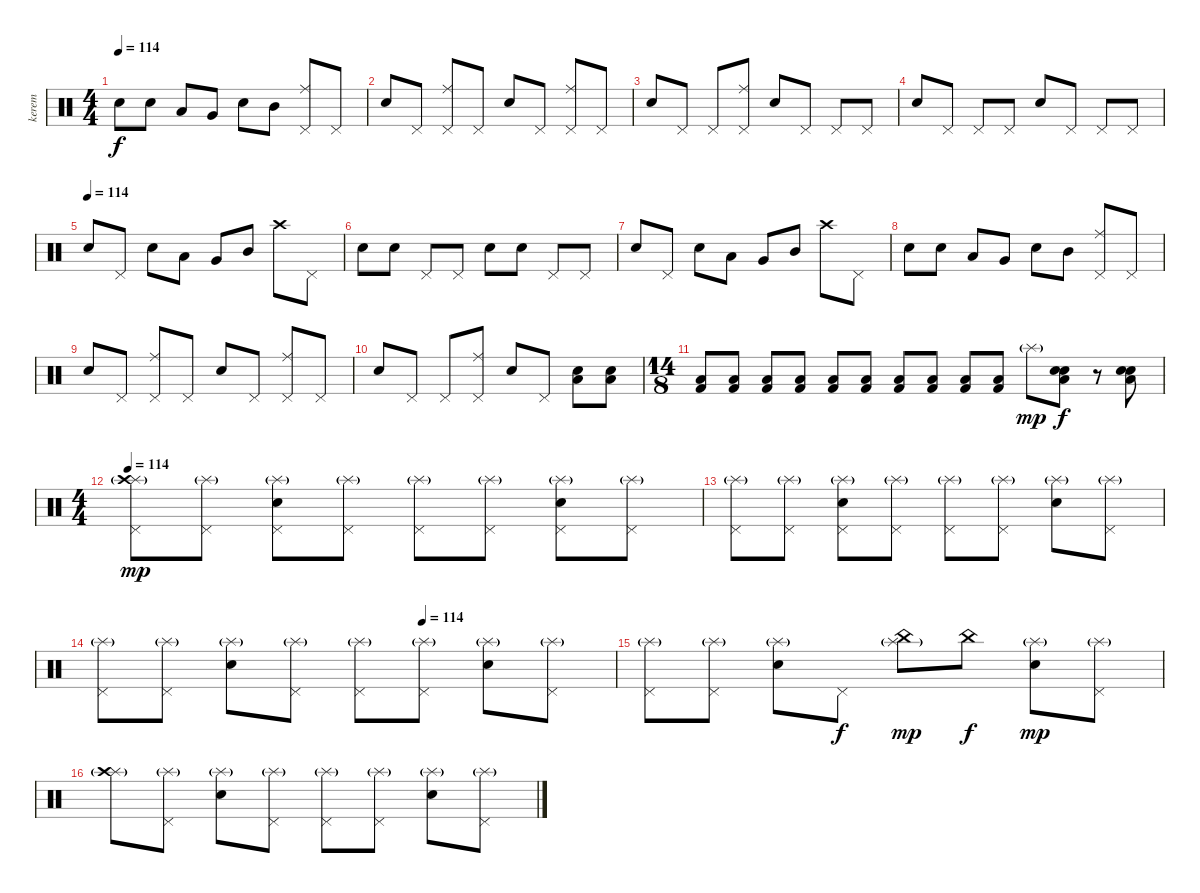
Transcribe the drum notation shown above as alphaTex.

\track ("kerem" "kerem") {instrument percussion}
\staff {score}
\articulation defaults
\ts (4 4)
\tempo 114
\clef neutral
\ks c "Snare (hit) 2".8{dy f} "Snare (hit) 2".8 "Low Floor Tom (hit)".8 "Very Low Tom (hit)".8 "Snare (hit) 2".8 "Mid Tom (hit)".8
("Ride (middle)" "Pedal Hi-Hat (hit)").8 "Pedal Hi-Hat (hit)".8 |
"Snare (hit) 2".8 "Pedal Hi-Hat (hit)".8 ("Pedal Hi-Hat (hit)" "Ride (middle)").8 "Pedal Hi-Hat (hit)".8 "Snare (hit) 2".8 "Pedal Hi-Hat (hit)".8 ("Ride (middle)" "Pedal Hi-Hat (hit)").8 "Pedal Hi-Hat (hit)".8 |
"Snare (hit) 2".8 "Pedal Hi-Hat (hit)".8 "Pedal Hi-Hat (hit)".8 ("Ride (middle)" "Pedal Hi-Hat (hit)").8 "Snare (hit) 2".8 "Pedal Hi-Hat (hit)".8 "Pedal Hi-Hat (hit)".8 "Pedal Hi-Hat (hit)".8 |
"Snare (hit) 2".8 "Pedal Hi-Hat (hit)".8 "Pedal Hi-Hat (hit)".8 "Pedal Hi-Hat (hit)".8 "Snare (hit) 2".8 "Pedal Hi-Hat (hit)".8 "Pedal Hi-Hat (hit)".8 "Pedal Hi-Hat (hit)".8 |
\tempo (114)
"Snare (hit) 2".8 "Pedal Hi-Hat (hit)".8 "Snare (hit) 2".8 "Low Floor Tom (hit)".8 "Very Low Tom (hit)".8 "Mid Tom (hit)".8 "Crash high (hit)".8 "Pedal Hi-Hat (hit)".8 |
"Snare (hit) 2".8 "Snare (hit) 2".8 "Pedal Hi-Hat (hit)".8 "Pedal Hi-Hat (hit)".8 "Snare (hit) 2".8 "Snare (hit) 2".8 "Pedal Hi-Hat (hit)".8 "Pedal Hi-Hat (hit)".8 |
"Snare (hit) 2".8 "Pedal Hi-Hat (hit)".8 "Snare (hit) 2".8 "Low Floor Tom (hit)".8 "Very Low Tom (hit)".8 "Mid Tom (hit)".8 "Crash high (hit)".8 "Pedal Hi-Hat (hit)".8 |
"Snare (hit) 2".8 "Snare (hit) 2".8 "Low Floor Tom (hit)".8 "Very Low Tom (hit)".8 "Snare (hit) 2".8 "Mid Tom (hit)".8 ("Ride (middle)" "Pedal Hi-Hat (hit)").8 "Pedal Hi-Hat (hit)".8 |
"Snare (hit) 2".8 "Pedal Hi-Hat (hit)".8 ("Pedal Hi-Hat (hit)" "Ride (middle)").8 "Pedal Hi-Hat (hit)".8 "Snare (hit) 2".8 "Pedal Hi-Hat (hit)".8 ("Ride (middle)" "Pedal Hi-Hat (hit)").8 "Pedal Hi-Hat (hit)".8 |
"Snare (hit) 2".8 "Pedal Hi-Hat (hit)".8 "Pedal Hi-Hat (hit)".8 ("Ride (middle)" "Pedal Hi-Hat (hit)").8 "Snare (hit) 2".8 "Pedal Hi-Hat (hit)".8 ("Snare (hit) 2" "Low Floor Tom (hit)").8 ("Snare (hit) 2" "Low Floor Tom (hit)").8 |
\ts (14 8)
("Low Floor Tom (hit)" "Kick (hit) 2").8 ("Low Floor Tom (hit)" "Kick (hit) 2").8 ("Low Floor Tom (hit)" "Kick (hit) 2").8 ("Kick (hit) 2" "Low Floor Tom (hit)").8 ("Kick (hit) 2" "Low Floor Tom (hit)").8 ("Kick (hit) 2" "Low Floor Tom (hit)").8 ("Kick (hit) 2" "Low Floor Tom (hit)").8 ("Kick (hit) 2" "Low Floor Tom (hit)").8 ("Kick (hit) 2" "Low Floor Tom (hit)").8 ("Low Floor Tom (hit)" "Kick (hit) 2").8 "Splash (hit)"{g}.8{dy mp} ("Snare (hit) 2" "Electric Snare (hit)" "Low Floor Tom (hit)").8{dy f} r.8 ("Snare (hit) 2" "Low Floor Tom (hit)" "Electric Snare (hit)").8 |
\ts (4 4)
\tempo 114
("Splash (hit)"{g} "Crash high (hit)" "Pedal Hi-Hat (hit)").8{dy mp} ("Splash (hit)"{g} "Pedal Hi-Hat (hit)").8 ("Splash (hit)"{g} "Snare (hit) 2" "Pedal Hi-Hat (hit)").8 ("Splash (hit)"{g} "Pedal Hi-Hat (hit)").8 ("Splash (hit)"{g} "Pedal Hi-Hat (hit)").8 ("Splash (hit)"{g} "Pedal Hi-Hat (hit)").8 ("Splash (hit)"{g} "Snare (hit) 2" "Pedal Hi-Hat (hit)").8 ("Splash (hit)"{g} "Pedal Hi-Hat (hit)").8 |
("Splash (hit)"{g} "Pedal Hi-Hat (hit)").8 ("Splash (hit)"{g} "Pedal Hi-Hat (hit)").8 ("Splash (hit)"{g} "Snare (hit) 2" "Pedal Hi-Hat (hit)").8 ("Splash (hit)"{g} "Pedal Hi-Hat (hit)").8 ("Splash (hit)"{g} "Pedal Hi-Hat (hit)").8 ("Splash (hit)"{g} "Pedal Hi-Hat (hit)").8 ("Splash (hit)"{g} "Snare (hit) 2").8 ("Splash (hit)"{g} "Pedal Hi-Hat (hit)").8 |
\tempo (114 0.625)
("Splash (hit)"{g} "Pedal Hi-Hat (hit)").8 ("Splash (hit)"{g} "Pedal Hi-Hat (hit)").8 ("Splash (hit)"{g} "Snare (hit) 2").8 ("Splash (hit)"{g} "Pedal Hi-Hat (hit)").8 ("Splash (hit)"{g} "Pedal Hi-Hat (hit)").8 ("Splash (hit)"{g} "Pedal Hi-Hat (hit)").8 ("Splash (hit)"{g} "Snare (hit) 2").8 ("Splash (hit)"{g} "Pedal Hi-Hat (hit)").8 |
("Splash (hit)"{g} "Pedal Hi-Hat (hit)").8 ("Splash (hit)"{g} "Pedal Hi-Hat (hit)").8 ("Splash (hit)"{g} "Snare (hit) 2").8 "Pedal Hi-Hat (hit)".8{dy f} ("Splash (hit)"{g} "China (hit)").8{dy mp} "China (hit)".8{dy f} ("Splash (hit)"{g} "Snare (hit) 2").8{dy mp} ("Splash (hit)"{g} "Pedal Hi-Hat (hit)").8 |
("Splash (hit)"{g} "Crash high (hit)").8 ("Splash (hit)"{g} "Pedal Hi-Hat (hit)").8 ("Splash (hit)"{g} "Snare (hit) 2").8 ("Splash (hit)"{g} "Pedal Hi-Hat (hit)").8 ("Splash (hit)"{g} "Pedal Hi-Hat (hit)").8 ("Splash (hit)"{g} "Pedal Hi-Hat (hit)").8 ("Splash (hit)"{g} "Snare (hit) 2").8 ("Splash (hit)"{g} "Pedal Hi-Hat (hit)").8
